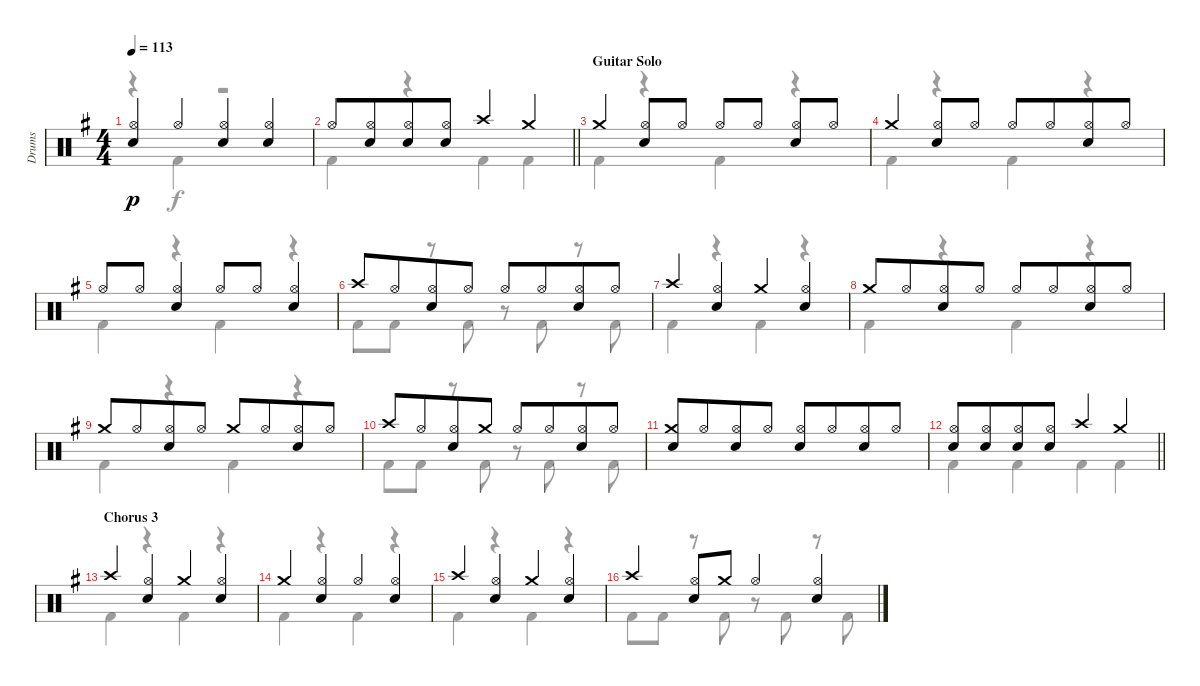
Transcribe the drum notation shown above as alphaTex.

\track ("Drums" "Drums") {instrument percussion}
\staff {score}
\articulation defaults
\voice
\ts (4 4)
\tempo 113
\clef neutral
\ks g
("Hi-Hat (open)" "Electric Snare (hit)").4{dy p} "Hi-Hat (open)".4 ("Hi-Hat (open)" "Electric Snare (hit)").4 ("Hi-Hat (open)" "Electric Snare (hit)").4 |
\barLineRight lightlight "Hi-Hat (open)".8
("Hi-Hat (open)" "Electric Snare (hit)").8{beam merge} ("Hi-Hat (open)" "Electric Snare (hit)").8 ("Hi-Hat (open)" "Electric Snare (hit)").8 "Crash high (hit)".4 "Crash medium (hit)".4 |
\section ("" "Guitar Solo")
"Crash medium (hit)".4 ("Hi-Hat (open)" "Electric Snare (hit)").8 "Hi-Hat (open)".8 "Hi-Hat (open)".8 "Hi-Hat (open)".8 ("Hi-Hat (open)" "Electric Snare (hit)").8 "Hi-Hat (open)".8 |
"Crash medium (hit)".4 ("Hi-Hat (open)" "Electric Snare (hit)").8 "Hi-Hat (open)".8 "Hi-Hat (open)".8 "Hi-Hat (open)".8{beam merge} ("Hi-Hat (open)" "Electric Snare (hit)").8 "Hi-Hat (open)".8 |
"Hi-Hat (open)".8 "Hi-Hat (open)".8 ("Hi-Hat (open)" "Electric Snare (hit)").4 "Hi-Hat (open)".8 "Hi-Hat (open)".8 ("Hi-Hat (open)" "Electric Snare (hit)").4 |
"Crash high (hit)".8 "Hi-Hat (open)".8{beam merge} ("Electric Snare (hit)" "Hi-Hat (open)").8 "Hi-Hat (open)".8 "Hi-Hat (open)".8 "Hi-Hat (open)".8{beam merge} ("Electric Snare (hit)" "Hi-Hat (open)").8 "Hi-Hat (open)".8 |
"Crash high (hit)".4 ("Hi-Hat (open)" "Electric Snare (hit)").4 "Crash medium (hit)".4 ("Hi-Hat (open)" "Electric Snare (hit)").4 |
"Crash medium (hit)".8 "Hi-Hat (open)".8{beam merge} ("Hi-Hat (open)" "Electric Snare (hit)").8 "Hi-Hat (open)".8 "Hi-Hat (open)".8 "Hi-Hat (open)".8{beam merge} ("Hi-Hat (open)" "Electric Snare (hit)").8 "Hi-Hat (open)".8 |
"Crash medium (hit)".8 "Hi-Hat (open)".8{beam merge} ("Hi-Hat (open)" "Electric Snare (hit)").8 "Hi-Hat (open)".8 "Crash medium (hit)".8 "Hi-Hat (open)".8{beam merge} ("Hi-Hat (open)" "Electric Snare (hit)").8 "Hi-Hat (open)".8 |
"Crash high (hit)".8 "Hi-Hat (open)".8{beam merge} ("Electric Snare (hit)" "Hi-Hat (open)").8 "Crash medium (hit)".8 "Hi-Hat (open)".8 "Hi-Hat (open)".8{beam merge} ("Electric Snare (hit)" "Hi-Hat (open)").8 "Hi-Hat (open)".8 |
("Crash medium (hit)" "Electric Snare (hit)").8{beam Up} "Hi-Hat (open)".8{beam Up beam merge} ("Hi-Hat (open)" "Electric Snare (hit)").8{beam Up} "Hi-Hat (open)".8{beam Up} ("Hi-Hat (open)" "Electric Snare (hit)").8{beam Up} "Hi-Hat (open)".8{beam Up beam merge} ("Hi-Hat (open)" "Electric Snare (hit)").8{beam Up} "Hi-Hat (open)".8{beam Up} |
\barLineRight lightlight
("Electric Snare (hit)" "Hi-Hat (open)").8 ("Electric Snare (hit)" "Hi-Hat (open)").8{beam merge} ("Electric Snare (hit)" "Hi-Hat (open)").8 ("Electric Snare (hit)" "Hi-Hat (open)").8 "Crash high (hit)".4 "Crash medium (hit)".4 |
\section ("" "Chorus 3")
"Crash high (hit)".4 ("Hi-Hat (open)" "Electric Snare (hit)").4 "Crash medium (hit)".4 ("Hi-Hat (open)" "Electric Snare (hit)").4 |
"Crash medium (hit)".4 ("Hi-Hat (open)" "Electric Snare (hit)").4 "Hi-Hat (open)".4 ("Hi-Hat (open)" "Electric Snare (hit)").4 |
"Crash high (hit)".4 ("Hi-Hat (open)" "Electric Snare (hit)").4 "Crash medium (hit)".4 ("Hi-Hat (open)" "Electric Snare (hit)").4 |
"Crash high (hit)".4 ("Electric Snare (hit)" "Hi-Hat (open)").8 "Crash medium (hit)".8 "Hi-Hat (open)".4 ("Electric Snare (hit)" "Hi-Hat (open)").4
\voice
\clef neutral
\ottava regular
\simile none
\ks g
r.4{dy f} "Kick (hit) 2".4 r.2 |
\barLineRight lightlight "Kick (hit) 2".4
r.4 "Kick (hit) 2".4 "Kick (hit) 2".4 |
"Kick (hit) 2".4 r.4 "Kick (hit) 2".4 r.4 |
"Kick (hit) 2".4 r.4 "Kick (hit) 2".4 r.4 |
"Kick (hit) 2".4 r.4 "Kick (hit) 2".4 r.4 |
"Kick (hit) 2".8 "Kick (hit) 2".8 r.8 "Kick (hit) 2".8 r.8 "Kick (hit) 2".8 r.8 "Kick (hit) 2".8 |
"Kick (hit) 2".4 r.4 "Kick (hit) 2".4 r.4 |
"Kick (hit) 2".4 r.4 "Kick (hit) 2".4 r.4 |
"Kick (hit) 2".4 r.4 "Kick (hit) 2".4 r.4 |
"Kick (hit) 2".8 "Kick (hit) 2".8 r.8 "Kick (hit) 2".8 r.8 "Kick (hit) 2".8 r.8 "Kick (hit) 2".8 |
|
\barLineRight lightlight "Kick (hit) 2".4 "Kick (hit) 2".4 "Kick (hit) 2".4 "Kick (hit) 2".4
|
"Kick (hit) 2".4 r.4 "Kick (hit) 2".4 r.4 |
"Kick (hit) 2".4 r.4 "Kick (hit) 2".4 r.4 |
"Kick (hit) 2".4 r.4 "Kick (hit) 2".4 r.4 |
"Kick (hit) 2".8 "Kick (hit) 2".8 r.8 "Kick (hit) 2".8 r.8 "Kick (hit) 2".8 r.8 "Kick (hit) 2".8
